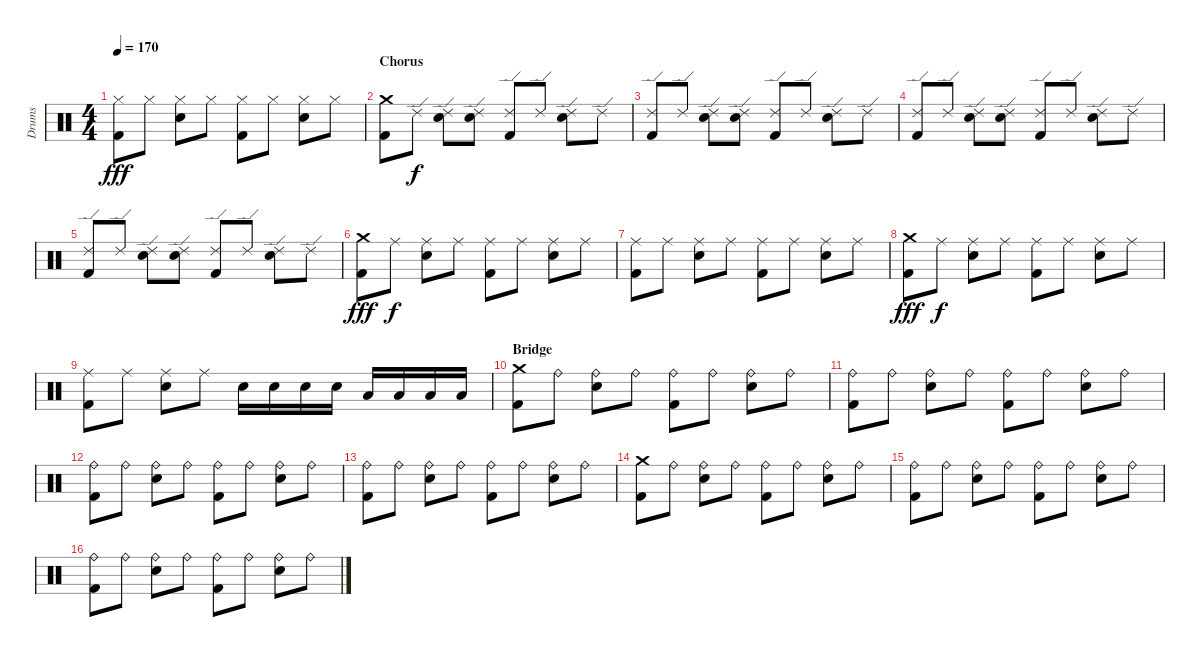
\track ("Drums" "Drums") {instrument percussion}
\staff {score}
\articulation defaults
\ts (4 4)
\tempo 170
\clef neutral
\ks c
("Hi-Hat (closed)" "Kick (hit) 2").8{dy fff} "Hi-Hat (closed)".8 ("Hi-Hat (closed)" "Electric Snare (hit)").8 "Hi-Hat (closed)".8 ("Hi-Hat (closed)" "Kick (hit) 2").8 "Hi-Hat (closed)".8 ("Hi-Hat (closed)" "Electric Snare (hit)").8 "Hi-Hat (closed)".8 |
\section ("" "Chorus")
("Crash medium (hit)" "Kick (hit) 2").8 "Ride (edge) 2".8{dy f} ("Ride (edge) 2" "Electric Snare (hit)").8 ("Ride (edge) 2" "Electric Snare (hit)").8 ("Ride (edge) 2" "Kick (hit) 2").8 "Ride (edge) 2".8 ("Ride (edge) 2" "Electric Snare (hit)").8 "Ride (edge) 2".8 |
("Ride (edge) 2" "Kick (hit) 2").8 "Ride (edge) 2".8 ("Ride (edge) 2" "Electric Snare (hit)").8 ("Ride (edge) 2" "Electric Snare (hit)").8 ("Ride (edge) 2" "Kick (hit) 2").8 "Ride (edge) 2".8 ("Ride (edge) 2" "Electric Snare (hit)").8 "Ride (edge) 2".8 |
("Ride (edge) 2" "Kick (hit) 2").8 "Ride (edge) 2".8 ("Ride (edge) 2" "Electric Snare (hit)").8 ("Ride (edge) 2" "Electric Snare (hit)").8 ("Ride (edge) 2" "Kick (hit) 2").8 "Ride (edge) 2".8 ("Ride (edge) 2" "Electric Snare (hit)").8 "Ride (edge) 2".8 |
("Ride (edge) 2" "Kick (hit) 2").8 "Ride (edge) 2".8 ("Ride (edge) 2" "Electric Snare (hit)").8 ("Ride (edge) 2" "Electric Snare (hit)").8 ("Ride (edge) 2" "Kick (hit) 2").8 "Ride (edge) 2".8 ("Ride (edge) 2" "Electric Snare (hit)").8 "Ride (edge) 2".8 |
("Crash medium (hit)" "Kick (hit) 2").8{dy fff} "Ride (middle)".8{dy f} ("Ride (middle)" "Electric Snare (hit)").8 "Ride (middle)".8 ("Ride (middle)" "Kick (hit) 2").8 "Ride (middle)".8 ("Ride (middle)" "Electric Snare (hit)").8 "Ride (middle)".8 |
("Ride (middle)" "Kick (hit) 2").8 "Ride (middle)".8 ("Ride (middle)" "Electric Snare (hit)").8 "Ride (middle)".8 ("Ride (middle)" "Kick (hit) 2").8 "Ride (middle)".8 ("Ride (middle)" "Electric Snare (hit)").8 "Ride (middle)".8 |
("Crash medium (hit)" "Kick (hit) 2").8{dy fff} "Ride (middle)".8{dy f} ("Ride (middle)" "Electric Snare (hit)").8 "Ride (middle)".8 ("Ride (middle)" "Kick (hit) 2").8 "Ride (middle)".8 ("Ride (middle)" "Electric Snare (hit)").8 "Ride (middle)".8 |
("Ride (middle)" "Kick (hit) 2").8 "Ride (middle)".8 ("Ride (middle)" "Electric Snare (hit)").8 "Ride (middle)".8 "Electric Snare (hit)".16 "Electric Snare (hit)".16 "Electric Snare (hit)".16 "Electric Snare (hit)".16 "Low Tom (hit)".16 "Low Tom (hit)".16 "Low Tom (hit)".16 "Low Tom (hit)".16 |
\section ("" "Bridge")
("Crash medium (hit)" "Kick (hit) 2").8 "Ride (bell)".8 ("Ride (bell)" "Electric Snare (hit)").8 "Ride (bell)".8 ("Ride (bell)" "Kick (hit) 2").8 "Ride (bell)".8 ("Ride (bell)" "Electric Snare (hit)").8 "Ride (bell)".8 |
("Ride (bell)" "Kick (hit) 2").8 "Ride (bell)".8 ("Ride (bell)" "Electric Snare (hit)").8 "Ride (bell)".8 ("Ride (bell)" "Kick (hit) 2").8 "Ride (bell)".8 ("Ride (bell)" "Electric Snare (hit)").8 "Ride (bell)".8 |
("Ride (bell)" "Kick (hit) 2").8 "Ride (bell)".8 ("Ride (bell)" "Electric Snare (hit)").8 "Ride (bell)".8 ("Ride (bell)" "Kick (hit) 2").8 "Ride (bell)".8 ("Ride (bell)" "Electric Snare (hit)").8 "Ride (bell)".8 |
("Ride (bell)" "Kick (hit) 2").8 "Ride (bell)".8 ("Ride (bell)" "Electric Snare (hit)").8 "Ride (bell)".8 ("Ride (bell)" "Kick (hit) 2").8 "Ride (bell)".8 ("Ride (bell)" "Electric Snare (hit)").8 "Ride (bell)".8 |
("Crash medium (hit)" "Kick (hit) 2").8 "Ride (bell)".8 ("Ride (bell)" "Electric Snare (hit)").8 "Ride (bell)".8 ("Ride (bell)" "Kick (hit) 2").8 "Ride (bell)".8 ("Ride (bell)" "Electric Snare (hit)").8 "Ride (bell)".8 |
("Ride (bell)" "Kick (hit) 2").8 "Ride (bell)".8 ("Ride (bell)" "Electric Snare (hit)").8 "Ride (bell)".8 ("Ride (bell)" "Kick (hit) 2").8 "Ride (bell)".8 ("Ride (bell)" "Electric Snare (hit)").8 "Ride (bell)".8 |
("Ride (bell)" "Kick (hit) 2").8 "Ride (bell)".8 ("Ride (bell)" "Electric Snare (hit)").8 "Ride (bell)".8 ("Ride (bell)" "Kick (hit) 2").8 "Ride (bell)".8 ("Ride (bell)" "Electric Snare (hit)").8 "Ride (bell)".8
